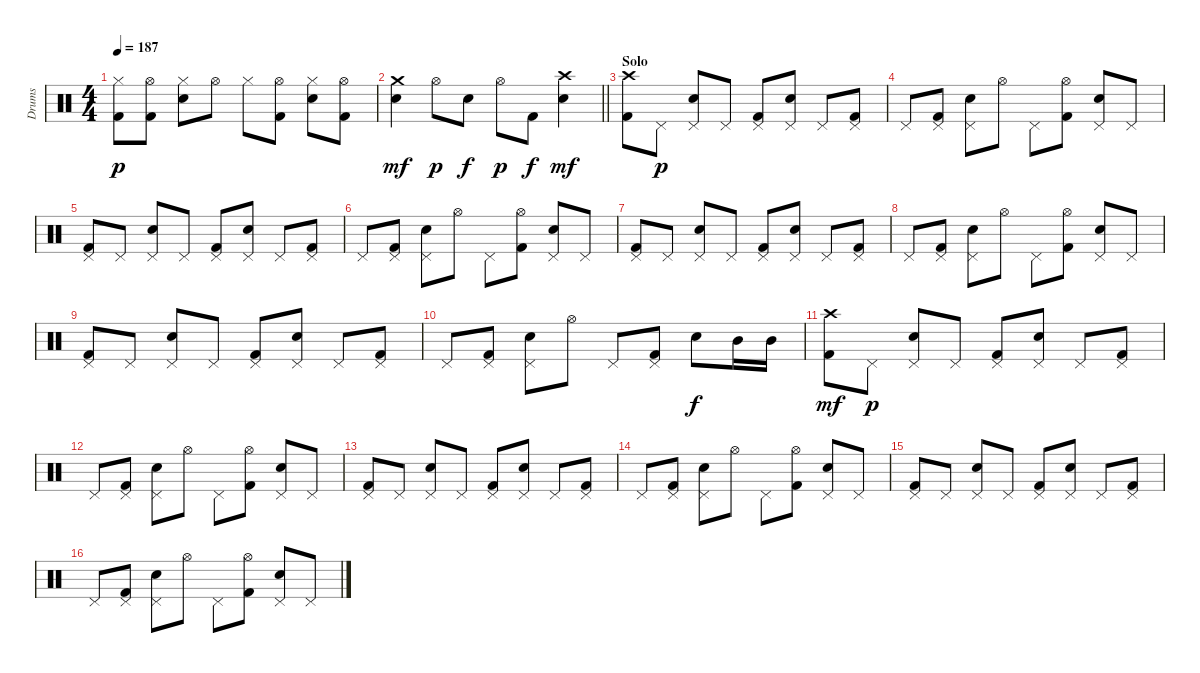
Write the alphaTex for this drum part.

\track ("Drums" "Drums") {instrument percussion}
\staff {score}
\articulation defaults
\ts (4 4)
\tempo 187
\clef neutral
\ks c
("Hi-Hat (closed)" "Kick (hit) 2").8{dy p} ("Hi-Hat (open)" "Kick (hit) 2").8 ("Hi-Hat (closed)" "Electric Snare (hit)").8 "Hi-Hat (open)".8 "Hi-Hat (closed)".8 ("Hi-Hat (open)" "Kick (hit) 2").8 ("Hi-Hat (closed)" "Electric Snare (hit)").8 ("Hi-Hat (open)" "Kick (hit) 2").8 |
\barLineRight lightlight
("Crash medium (hit)" "Electric Snare (hit)").4{dy mf} "Hi-Hat (open)".8{dy p} "Electric Snare (hit)".8{dy f} "Hi-Hat (open)".8{dy p} "Kick (hit) 2".8{dy f} ("Crash high (hit)" "Electric Snare (hit)").4{dy mf} |
\section ("" "Solo")
("Crash high (hit)" "Kick (hit) 2").8 "Pedal Hi-Hat (hit)".8{dy p} ("Pedal Hi-Hat (hit)" "Electric Snare (hit)").8 "Pedal Hi-Hat (hit)".8 ("Pedal Hi-Hat (hit)" "Kick (hit) 2").8 ("Pedal Hi-Hat (hit)" "Electric Snare (hit)").8 "Pedal Hi-Hat (hit)".8 ("Pedal Hi-Hat (hit)" "Kick (hit) 2").8 |
"Pedal Hi-Hat (hit)".8 ("Pedal Hi-Hat (hit)" "Kick (hit) 2").8 ("Pedal Hi-Hat (hit)" "Electric Snare (hit)").8 "Hi-Hat (open)".8 "Pedal Hi-Hat (hit)".8 ("Hi-Hat (open)" "Kick (hit) 2").8 ("Pedal Hi-Hat (hit)" "Electric Snare (hit)").8 "Pedal Hi-Hat (hit)".8 |
("Pedal Hi-Hat (hit)" "Kick (hit) 2").8 "Pedal Hi-Hat (hit)".8 ("Pedal Hi-Hat (hit)" "Electric Snare (hit)").8 "Pedal Hi-Hat (hit)".8 ("Pedal Hi-Hat (hit)" "Kick (hit) 2").8 ("Pedal Hi-Hat (hit)" "Electric Snare (hit)").8 "Pedal Hi-Hat (hit)".8 ("Pedal Hi-Hat (hit)" "Kick (hit) 2").8 |
"Pedal Hi-Hat (hit)".8 ("Pedal Hi-Hat (hit)" "Kick (hit) 2").8 ("Pedal Hi-Hat (hit)" "Electric Snare (hit)").8 "Hi-Hat (open)".8 "Pedal Hi-Hat (hit)".8 ("Hi-Hat (open)" "Kick (hit) 2").8 ("Pedal Hi-Hat (hit)" "Electric Snare (hit)").8 "Pedal Hi-Hat (hit)".8 |
("Pedal Hi-Hat (hit)" "Kick (hit) 2").8 "Pedal Hi-Hat (hit)".8 ("Pedal Hi-Hat (hit)" "Electric Snare (hit)").8 "Pedal Hi-Hat (hit)".8 ("Pedal Hi-Hat (hit)" "Kick (hit) 2").8 ("Pedal Hi-Hat (hit)" "Electric Snare (hit)").8 "Pedal Hi-Hat (hit)".8 ("Pedal Hi-Hat (hit)" "Kick (hit) 2").8 |
"Pedal Hi-Hat (hit)".8 ("Pedal Hi-Hat (hit)" "Kick (hit) 2").8 ("Pedal Hi-Hat (hit)" "Electric Snare (hit)").8 "Hi-Hat (open)".8 "Pedal Hi-Hat (hit)".8 ("Hi-Hat (open)" "Kick (hit) 2").8 ("Pedal Hi-Hat (hit)" "Electric Snare (hit)").8 "Pedal Hi-Hat (hit)".8 |
("Pedal Hi-Hat (hit)" "Kick (hit) 2").8 "Pedal Hi-Hat (hit)".8 ("Pedal Hi-Hat (hit)" "Electric Snare (hit)").8 "Pedal Hi-Hat (hit)".8 ("Pedal Hi-Hat (hit)" "Kick (hit) 2").8 ("Pedal Hi-Hat (hit)" "Electric Snare (hit)").8 "Pedal Hi-Hat (hit)".8 ("Pedal Hi-Hat (hit)" "Kick (hit) 2").8 |
"Pedal Hi-Hat (hit)".8 ("Pedal Hi-Hat (hit)" "Kick (hit) 2").8 ("Pedal Hi-Hat (hit)" "Electric Snare (hit)").8 "Hi-Hat (open)".8 "Pedal Hi-Hat (hit)".8 ("Pedal Hi-Hat (hit)" "Kick (hit) 2").8 "Electric Snare (hit)".8{dy f} "Mid Tom (hit)".16 "Mid Tom (hit)".16 |
("Crash high (hit)" "Kick (hit) 2").8{dy mf} "Pedal Hi-Hat (hit)".8{dy p} ("Pedal Hi-Hat (hit)" "Electric Snare (hit)").8 "Pedal Hi-Hat (hit)".8 ("Pedal Hi-Hat (hit)" "Kick (hit) 2").8 ("Pedal Hi-Hat (hit)" "Electric Snare (hit)").8 "Pedal Hi-Hat (hit)".8 ("Pedal Hi-Hat (hit)" "Kick (hit) 2").8 |
"Pedal Hi-Hat (hit)".8 ("Pedal Hi-Hat (hit)" "Kick (hit) 2").8 ("Pedal Hi-Hat (hit)" "Electric Snare (hit)").8 "Hi-Hat (open)".8 "Pedal Hi-Hat (hit)".8 ("Hi-Hat (open)" "Kick (hit) 2").8 ("Pedal Hi-Hat (hit)" "Electric Snare (hit)").8 "Pedal Hi-Hat (hit)".8 |
("Pedal Hi-Hat (hit)" "Kick (hit) 2").8 "Pedal Hi-Hat (hit)".8 ("Pedal Hi-Hat (hit)" "Electric Snare (hit)").8 "Pedal Hi-Hat (hit)".8 ("Pedal Hi-Hat (hit)" "Kick (hit) 2").8 ("Pedal Hi-Hat (hit)" "Electric Snare (hit)").8 "Pedal Hi-Hat (hit)".8 ("Pedal Hi-Hat (hit)" "Kick (hit) 2").8 |
"Pedal Hi-Hat (hit)".8 ("Pedal Hi-Hat (hit)" "Kick (hit) 2").8 ("Pedal Hi-Hat (hit)" "Electric Snare (hit)").8 "Hi-Hat (open)".8 "Pedal Hi-Hat (hit)".8 ("Hi-Hat (open)" "Kick (hit) 2").8 ("Pedal Hi-Hat (hit)" "Electric Snare (hit)").8 "Pedal Hi-Hat (hit)".8 |
("Pedal Hi-Hat (hit)" "Kick (hit) 2").8 "Pedal Hi-Hat (hit)".8 ("Pedal Hi-Hat (hit)" "Electric Snare (hit)").8 "Pedal Hi-Hat (hit)".8 ("Pedal Hi-Hat (hit)" "Kick (hit) 2").8 ("Pedal Hi-Hat (hit)" "Electric Snare (hit)").8 "Pedal Hi-Hat (hit)".8 ("Pedal Hi-Hat (hit)" "Kick (hit) 2").8 |
"Pedal Hi-Hat (hit)".8 ("Pedal Hi-Hat (hit)" "Kick (hit) 2").8 ("Pedal Hi-Hat (hit)" "Electric Snare (hit)").8 "Hi-Hat (open)".8 "Pedal Hi-Hat (hit)".8 ("Hi-Hat (open)" "Kick (hit) 2").8 ("Pedal Hi-Hat (hit)" "Electric Snare (hit)").8 "Pedal Hi-Hat (hit)".8
